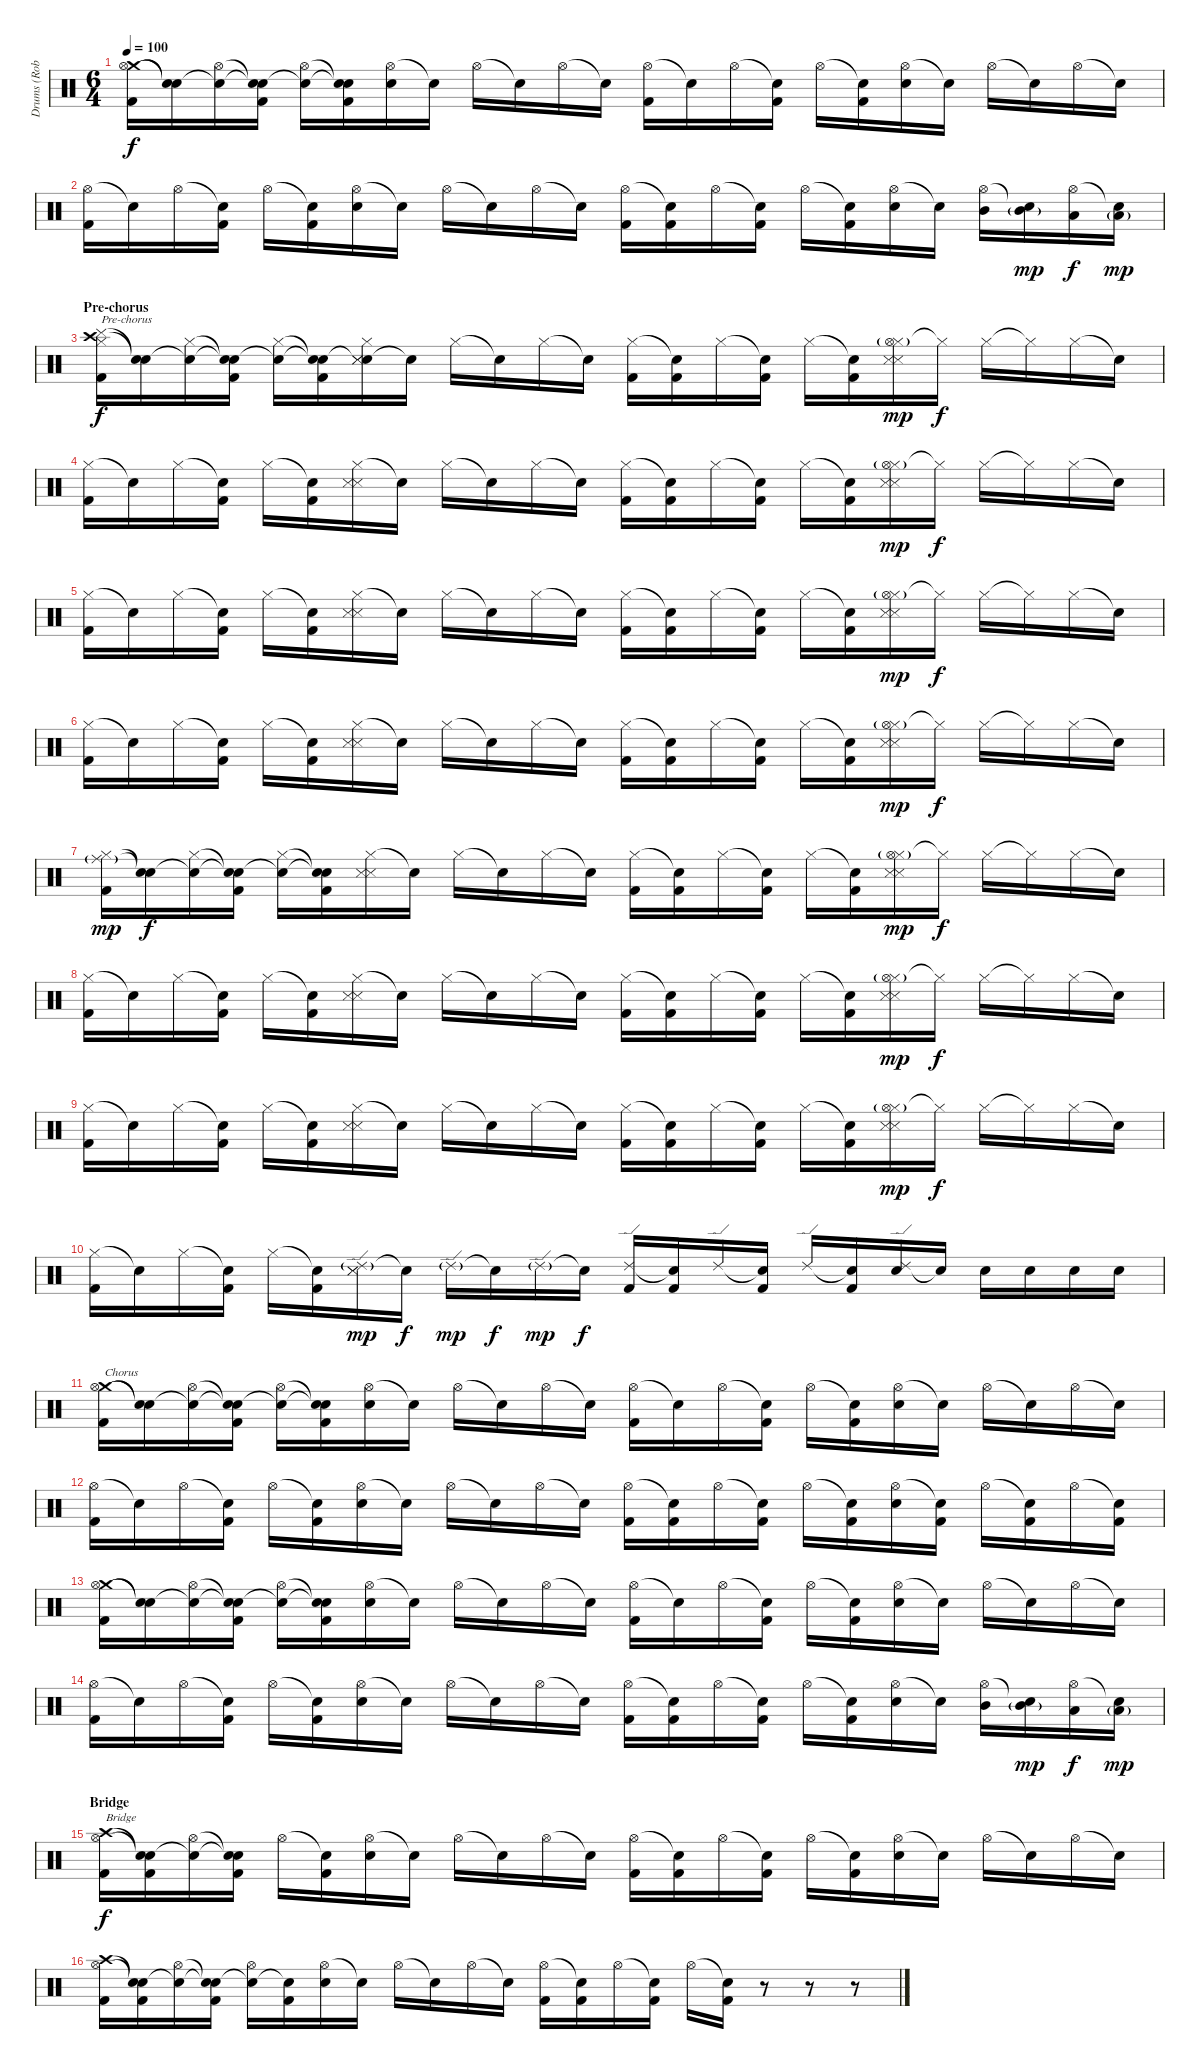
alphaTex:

\track ("Drums (Rob Bourdon)" "Drums (Rob") {instrument percussion}
\staff {score}
\articulation defaults
\ts (6 4)
\tempo 100
\clef neutral
\ks c
("Crash medium (hit)" "Hi-Hat (open)" "Kick (hit) 2").16{dy f} ("Snare (hit)"{t} "Snare (hit)"{t}).16 ("Snare (hit)"{t} "Hi-Hat (open)").16 ("Snare (hit)"{t} "Snare (hit)"{t} "Kick (hit) 2").16 ("Snare (hit)"{t} "Hi-Hat (open)").16 ("Snare (hit)"{t} "Snare (hit)"{t} "Kick (hit) 2").16 ("Hi-Hat (open)" "Electric Snare (hit)").16 "Snare (hit)"{t}.16 "Hi-Hat (open)".16 "Snare (hit)"{t}.16 "Hi-Hat (open)".16 "Snare (hit)"{t}.16 ("Hi-Hat (open)" "Kick (hit) 2").16 "Snare (hit)"{t}.16 "Hi-Hat (open)".16 ("Snare (hit)"{t} "Kick (hit) 2").16 "Hi-Hat (open)".16 ("Snare (hit)"{t} "Kick (hit) 2").16 ("Hi-Hat (open)" "Electric Snare (hit)").16 "Snare (hit)"{t}.16 "Hi-Hat (open)".16 "Snare (hit)"{t}.16 "Hi-Hat (open)".16 "Snare (hit)"{t}.16 |
("Hi-Hat (open)" "Kick (hit) 2").16 "Snare (hit)"{t}.16 "Hi-Hat (open)".16 ("Snare (hit)"{t} "Kick (hit) 2").16 "Hi-Hat (open)".16 ("Snare (hit)"{t} "Kick (hit) 2").16 ("Hi-Hat (open)" "Electric Snare (hit)").16 "Snare (hit)"{t}.16 "Hi-Hat (open)".16 "Snare (hit)"{t}.16 "Hi-Hat (open)".16 "Snare (hit)"{t}.16 ("Hi-Hat (open)" "Kick (hit) 2").16 ("Snare (hit)"{t} "Kick (hit) 2").16 "Hi-Hat (open)".16 ("Snare (hit)"{t} "Kick (hit) 2").16 "Hi-Hat (open)".16 ("Snare (hit)"{t} "Kick (hit) 2").16 ("Hi-Hat (open)" "Electric Snare (hit)").16 "Snare (hit)"{t}.16 ("Hi-Hat (open)" "Mid Tom (hit)").16 ("Snare (hit)"{t} "Mid Tom (hit)"{g}).16{dy mp} ("Hi-Hat (open)" "Low Tom (hit)").16{dy f} ("Snare (hit)"{t} "Low Tom (hit)"{g}).16{dy mp} |
\section ("" "Pre-chorus")
("Crash high (hit)" "Cymbal (hit)" "Hi-Hat (closed)" "Kick (hit) 2").16{txt "Pre-chorus" dy f} ("Snare (hit)"{t} "Snare (hit)"{t}).16 ("Snare (hit)"{t} "Hi-Hat (closed)").16 ("Snare (hit)"{t} "Snare (hit)"{t} "Kick (hit) 2").16 ("Snare (hit)"{t} "Hi-Hat (closed)").16 ("Snare (hit)"{t} "Snare (hit)"{t} "Kick (hit) 2").16 ("Snare (hit)"{t} "Hi-Hat (closed)" "Snare (side stick) 3" "Metronome (hit)").16 "Snare (hit)"{t}.16 "Hi-Hat (closed)".16 "Snare (hit)"{t}.16 "Hi-Hat (closed)".16 "Snare (hit)"{t}.16 ("Hi-Hat (closed)" "Kick (hit) 2").16 ("Snare (hit)"{t} "Kick (hit) 2").16 "Hi-Hat (closed)".16 ("Snare (hit)"{t} "Kick (hit) 2").16 "Hi-Hat (closed)".16 ("Snare (hit)"{t} "Kick (hit) 2").16 ("Hi-Hat (closed)" "Hi-Hat (open)"{g} "Snare (side stick) 3" "Metronome (hit)").16{dy mp} "Hi-Hat (closed)"{t}.16{dy f} "Hi-Hat (closed)".16 "Hi-Hat (closed)"{t}.16 "Hi-Hat (closed)".16 "Snare (hit)"{t}.16 |
("Hi-Hat (closed)" "Kick (hit) 2").16 "Snare (hit)"{t}.16 "Hi-Hat (closed)".16 ("Snare (hit)"{t} "Kick (hit) 2").16 "Hi-Hat (closed)".16 ("Snare (hit)"{t} "Kick (hit) 2").16 ("Hi-Hat (closed)" "Snare (side stick) 3" "Metronome (hit)").16 "Snare (hit)"{t}.16 "Hi-Hat (closed)".16 "Snare (hit)"{t}.16 "Hi-Hat (closed)".16 "Snare (hit)"{t}.16 ("Hi-Hat (closed)" "Kick (hit) 2").16 ("Snare (hit)"{t} "Kick (hit) 2").16 "Hi-Hat (closed)".16 ("Snare (hit)"{t} "Kick (hit) 2").16 "Hi-Hat (closed)".16 ("Snare (hit)"{t} "Kick (hit) 2").16 ("Hi-Hat (closed)" "Hi-Hat (open)"{g} "Snare (side stick) 3" "Metronome (hit)").16{dy mp} "Hi-Hat (closed)"{t}.16{dy f} "Hi-Hat (closed)".16 "Hi-Hat (closed)"{t}.16 "Hi-Hat (closed)".16 "Snare (hit)"{t}.16 |
("Hi-Hat (closed)" "Kick (hit) 2").16 "Snare (hit)"{t}.16 "Hi-Hat (closed)".16 ("Snare (hit)"{t} "Kick (hit) 2").16 "Hi-Hat (closed)".16 ("Snare (hit)"{t} "Kick (hit) 2").16 ("Hi-Hat (closed)" "Snare (side stick) 3" "Metronome (hit)").16 "Snare (hit)"{t}.16 "Hi-Hat (closed)".16 "Snare (hit)"{t}.16 "Hi-Hat (closed)".16 "Snare (hit)"{t}.16 ("Hi-Hat (closed)" "Kick (hit) 2").16 ("Snare (hit)"{t} "Kick (hit) 2").16 "Hi-Hat (closed)".16 ("Snare (hit)"{t} "Kick (hit) 2").16 "Hi-Hat (closed)".16 ("Snare (hit)"{t} "Kick (hit) 2").16 ("Hi-Hat (closed)" "Hi-Hat (open)"{g} "Snare (side stick) 3" "Metronome (hit)").16{dy mp} "Hi-Hat (closed)"{t}.16{dy f} "Hi-Hat (closed)".16 "Hi-Hat (closed)"{t}.16 "Hi-Hat (closed)".16 "Snare (hit)"{t}.16 |
("Hi-Hat (closed)" "Kick (hit) 2").16 "Snare (hit)"{t}.16 "Hi-Hat (closed)".16 ("Snare (hit)"{t} "Kick (hit) 2").16 "Hi-Hat (closed)".16 ("Snare (hit)"{t} "Kick (hit) 2").16 ("Hi-Hat (closed)" "Snare (side stick) 3" "Metronome (hit)").16 "Snare (hit)"{t}.16 "Hi-Hat (closed)".16 "Snare (hit)"{t}.16 "Hi-Hat (closed)".16 "Snare (hit)"{t}.16 ("Hi-Hat (closed)" "Kick (hit) 2").16 ("Snare (hit)"{t} "Kick (hit) 2").16 "Hi-Hat (closed)".16 ("Snare (hit)"{t} "Kick (hit) 2").16 "Hi-Hat (closed)".16 ("Snare (hit)"{t} "Kick (hit) 2").16 ("Hi-Hat (closed)" "Hi-Hat (open)"{g} "Snare (side stick) 3" "Metronome (hit)").16{dy mp} "Hi-Hat (closed)"{t}.16{dy f} "Hi-Hat (closed)".16 "Hi-Hat (closed)"{t}.16 "Hi-Hat (closed)".16 "Snare (hit)"{t}.16 |
("Ride (middle)"{g} "Hi-Hat (closed)" "Kick (hit) 2").16{dy mp} ("Snare (hit)"{t} "Snare (hit)"{t}).16{dy f} ("Snare (hit)"{t} "Hi-Hat (closed)").16 ("Snare (hit)"{t} "Snare (hit)"{t} "Kick (hit) 2").16 ("Snare (hit)"{t} "Hi-Hat (closed)").16 ("Snare (hit)"{t} "Snare (hit)"{t} "Kick (hit) 2").16 ("Hi-Hat (closed)" "Snare (side stick) 3" "Metronome (hit)").16 "Snare (hit)"{t}.16 "Hi-Hat (closed)".16 "Snare (hit)"{t}.16 "Hi-Hat (closed)".16 "Snare (hit)"{t}.16 ("Hi-Hat (closed)" "Kick (hit) 2").16 ("Snare (hit)"{t} "Kick (hit) 2").16 "Hi-Hat (closed)".16 ("Snare (hit)"{t} "Kick (hit) 2").16 "Hi-Hat (closed)".16 ("Snare (hit)"{t} "Kick (hit) 2").16 ("Hi-Hat (closed)" "Hi-Hat (open)"{g} "Snare (side stick) 3" "Metronome (hit)").16{dy mp} "Hi-Hat (closed)"{t}.16{dy f} "Hi-Hat (closed)".16 "Hi-Hat (closed)"{t}.16 "Hi-Hat (closed)".16 "Snare (hit)"{t}.16 |
("Hi-Hat (closed)" "Kick (hit) 2").16 "Snare (hit)"{t}.16 "Hi-Hat (closed)".16 ("Snare (hit)"{t} "Kick (hit) 2").16 "Hi-Hat (closed)".16 ("Snare (hit)"{t} "Kick (hit) 2").16 ("Hi-Hat (closed)" "Snare (side stick) 3" "Metronome (hit)").16 "Snare (hit)"{t}.16 "Hi-Hat (closed)".16 "Snare (hit)"{t}.16 "Hi-Hat (closed)".16 "Snare (hit)"{t}.16 ("Hi-Hat (closed)" "Kick (hit) 2").16 ("Snare (hit)"{t} "Kick (hit) 2").16 "Hi-Hat (closed)".16 ("Snare (hit)"{t} "Kick (hit) 2").16 "Hi-Hat (closed)".16 ("Snare (hit)"{t} "Kick (hit) 2").16 ("Hi-Hat (closed)" "Hi-Hat (open)"{g} "Snare (side stick) 3" "Metronome (hit)").16{dy mp} "Hi-Hat (closed)"{t}.16{dy f} "Hi-Hat (closed)".16 "Hi-Hat (closed)"{t}.16 "Hi-Hat (closed)".16 "Snare (hit)"{t}.16 |
("Hi-Hat (closed)" "Kick (hit) 2").16 "Snare (hit)"{t}.16 "Hi-Hat (closed)".16 ("Snare (hit)"{t} "Kick (hit) 2").16 "Hi-Hat (closed)".16 ("Snare (hit)"{t} "Kick (hit) 2").16 ("Hi-Hat (closed)" "Snare (side stick) 3" "Metronome (hit)").16 "Snare (hit)"{t}.16 "Hi-Hat (closed)".16 "Snare (hit)"{t}.16 "Hi-Hat (closed)".16 "Snare (hit)"{t}.16 ("Hi-Hat (closed)" "Kick (hit) 2").16 ("Snare (hit)"{t} "Kick (hit) 2").16 "Hi-Hat (closed)".16 ("Snare (hit)"{t} "Kick (hit) 2").16 "Hi-Hat (closed)".16 ("Snare (hit)"{t} "Kick (hit) 2").16 ("Hi-Hat (closed)" "Hi-Hat (open)"{g} "Snare (side stick) 3" "Metronome (hit)").16{dy mp} "Hi-Hat (closed)"{t}.16{dy f} "Hi-Hat (closed)".16 "Hi-Hat (closed)"{t}.16 "Hi-Hat (closed)".16 "Snare (hit)"{t}.16 |
("Hi-Hat (closed)" "Kick (hit) 2").16 "Snare (hit)"{t}.16 "Hi-Hat (closed)".16 ("Snare (hit)"{t} "Kick (hit) 2").16 "Hi-Hat (closed)".16 ("Snare (hit)"{t} "Kick (hit) 2").16 ("Ride (edge) 2"{g} "Snare (side stick) 3" "Metronome (hit)").16{dy mp} "Snare (hit)"{t}.16{dy f} "Ride (edge) 2"{g}.16{dy mp} "Snare (hit)"{t}.16{dy f} "Ride (edge) 2"{g}.16{dy mp} "Snare (hit)"{t}.16{dy f} ("Ride (edge) 2" "Kick (hit) 2").16 ("Snare (hit)"{t} "Kick (hit) 2").16 "Ride (edge) 2".16 ("Snare (hit)"{t} "Kick (hit) 2").16 "Ride (edge) 2".16 ("Snare (hit)"{t} "Kick (hit) 2").16 ("Ride (edge) 2" "Electric Snare (hit)").16 "Snare (hit)"{t}.16 "Electric Snare (hit)".16 "Electric Snare (hit)".16 "Electric Snare (hit)".16 "Electric Snare (hit)".16 |
("Crash medium (hit)" "Hi-Hat (open)" "Kick (hit) 2").16{txt "Chorus"} ("Snare (hit)"{t} "Snare (hit)"{t}).16 ("Snare (hit)"{t} "Hi-Hat (open)").16 ("Snare (hit)"{t} "Snare (hit)"{t} "Kick (hit) 2").16 ("Snare (hit)"{t} "Hi-Hat (open)").16 ("Snare (hit)"{t} "Snare (hit)"{t} "Kick (hit) 2").16 ("Hi-Hat (open)" "Electric Snare (hit)").16 "Snare (hit)"{t}.16 "Hi-Hat (open)".16 "Snare (hit)"{t}.16 "Hi-Hat (open)".16 "Snare (hit)"{t}.16 ("Hi-Hat (open)" "Kick (hit) 2").16 "Snare (hit)"{t}.16 "Hi-Hat (open)".16 ("Snare (hit)"{t} "Kick (hit) 2").16 "Hi-Hat (open)".16 ("Snare (hit)"{t} "Kick (hit) 2").16 ("Hi-Hat (open)" "Electric Snare (hit)").16 "Snare (hit)"{t}.16 "Hi-Hat (open)".16 "Snare (hit)"{t}.16 "Hi-Hat (open)".16 "Snare (hit)"{t}.16 |
("Hi-Hat (open)" "Kick (hit) 2").16 "Snare (hit)"{t}.16 "Hi-Hat (open)".16 ("Snare (hit)"{t} "Kick (hit) 2").16 "Hi-Hat (open)".16 ("Snare (hit)"{t} "Kick (hit) 2").16 ("Hi-Hat (open)" "Electric Snare (hit)").16 "Snare (hit)"{t}.16 "Hi-Hat (open)".16 "Snare (hit)"{t}.16 "Hi-Hat (open)".16 "Snare (hit)"{t}.16 ("Hi-Hat (open)" "Kick (hit) 2").16 ("Snare (hit)"{t} "Kick (hit) 2").16 "Hi-Hat (open)".16 ("Snare (hit)"{t} "Kick (hit) 2").16 "Hi-Hat (open)".16 ("Snare (hit)"{t} "Kick (hit) 2").16 ("Hi-Hat (open)" "Electric Snare (hit)").16 ("Snare (hit)"{t} "Kick (hit) 2").16 "Hi-Hat (open)".16 ("Snare (hit)"{t} "Kick (hit) 2").16 "Hi-Hat (open)".16 ("Snare (hit)"{t} "Kick (hit) 2").16 |
("Crash medium (hit)" "Hi-Hat (open)" "Kick (hit) 2").16 ("Snare (hit)"{t} "Snare (hit)"{t}).16 ("Snare (hit)"{t} "Hi-Hat (open)").16 ("Snare (hit)"{t} "Snare (hit)"{t} "Kick (hit) 2").16 ("Snare (hit)"{t} "Hi-Hat (open)").16 ("Snare (hit)"{t} "Snare (hit)"{t} "Kick (hit) 2").16 ("Hi-Hat (open)" "Electric Snare (hit)").16 "Snare (hit)"{t}.16 "Hi-Hat (open)".16 "Snare (hit)"{t}.16 "Hi-Hat (open)".16 "Snare (hit)"{t}.16 ("Hi-Hat (open)" "Kick (hit) 2").16 "Snare (hit)"{t}.16 "Hi-Hat (open)".16 ("Snare (hit)"{t} "Kick (hit) 2").16 "Hi-Hat (open)".16 ("Snare (hit)"{t} "Kick (hit) 2").16 ("Hi-Hat (open)" "Electric Snare (hit)").16 "Snare (hit)"{t}.16 "Hi-Hat (open)".16 "Snare (hit)"{t}.16 "Hi-Hat (open)".16 "Snare (hit)"{t}.16 |
("Hi-Hat (open)" "Kick (hit) 2").16 "Snare (hit)"{t}.16 "Hi-Hat (open)".16 ("Snare (hit)"{t} "Kick (hit) 2").16 "Hi-Hat (open)".16 ("Snare (hit)"{t} "Kick (hit) 2").16 ("Hi-Hat (open)" "Electric Snare (hit)").16 "Snare (hit)"{t}.16 "Hi-Hat (open)".16 "Snare (hit)"{t}.16 "Hi-Hat (open)".16 "Snare (hit)"{t}.16 ("Hi-Hat (open)" "Kick (hit) 2").16 ("Snare (hit)"{t} "Kick (hit) 2").16 "Hi-Hat (open)".16 ("Snare (hit)"{t} "Kick (hit) 2").16 "Hi-Hat (open)".16 ("Snare (hit)"{t} "Kick (hit) 2").16 ("Hi-Hat (open)" "Electric Snare (hit)").16 "Snare (hit)"{t}.16 ("Hi-Hat (open)" "Mid Tom (hit)").16 ("Snare (hit)"{t} "Mid Tom (hit)"{g}).16{dy mp} ("Hi-Hat (open)" "Low Tom (hit)").16{dy f} ("Snare (hit)"{t} "Low Tom (hit)"{g}).16{dy mp} |
\section ("" "Bridge")
("Crash high (hit)" "Hi-Hat (open)" "Kick (hit) 2").16{txt "Bridge" dy f} ("Snare (hit)"{t} "Snare (hit)"{t} "Kick (hit) 2").16 ("Snare (hit)"{t} "Hi-Hat (open)").16 ("Snare (hit)"{t} "Snare (hit)"{t} "Kick (hit) 2").16 "Hi-Hat (open)".16 ("Snare (hit)"{t} "Kick (hit) 2").16 ("Hi-Hat (open)" "Electric Snare (hit)").16 "Snare (hit)"{t}.16 "Hi-Hat (open)".16 "Snare (hit)"{t}.16 "Hi-Hat (open)".16 "Snare (hit)"{t}.16 ("Hi-Hat (open)" "Kick (hit) 2").16 ("Snare (hit)"{t} "Kick (hit) 2").16 "Hi-Hat (open)".16 ("Snare (hit)"{t} "Kick (hit) 2").16 "Hi-Hat (open)".16 ("Snare (hit)"{t} "Kick (hit) 2").16 ("Hi-Hat (open)" "Electric Snare (hit)").16 "Snare (hit)"{t}.16 "Hi-Hat (open)".16 "Snare (hit)"{t}.16 "Hi-Hat (open)".16 "Snare (hit)"{t}.16 |
("Crash high (hit)" "Hi-Hat (open)" "Kick (hit) 2").16 ("Snare (hit)"{t} "Snare (hit)"{t} "Kick (hit) 2").16 ("Snare (hit)"{t} "Hi-Hat (open)").16 ("Snare (hit)"{t} "Snare (hit)"{t} "Kick (hit) 2").16 ("Snare (hit)"{t} "Hi-Hat (open)").16 ("Snare (hit)"{t} "Kick (hit) 2").16 ("Hi-Hat (open)" "Electric Snare (hit)").16 "Snare (hit)"{t}.16 "Hi-Hat (open)".16 "Snare (hit)"{t}.16 "Hi-Hat (open)".16 "Snare (hit)"{t}.16 ("Hi-Hat (open)" "Kick (hit) 2").16 ("Snare (hit)"{t} "Kick (hit) 2").16 "Hi-Hat (open)".16 ("Snare (hit)"{t} "Kick (hit) 2").16 "Hi-Hat (open)".16 ("Snare (hit)"{t} "Kick (hit) 2").16 r.8 r.8 r.8
